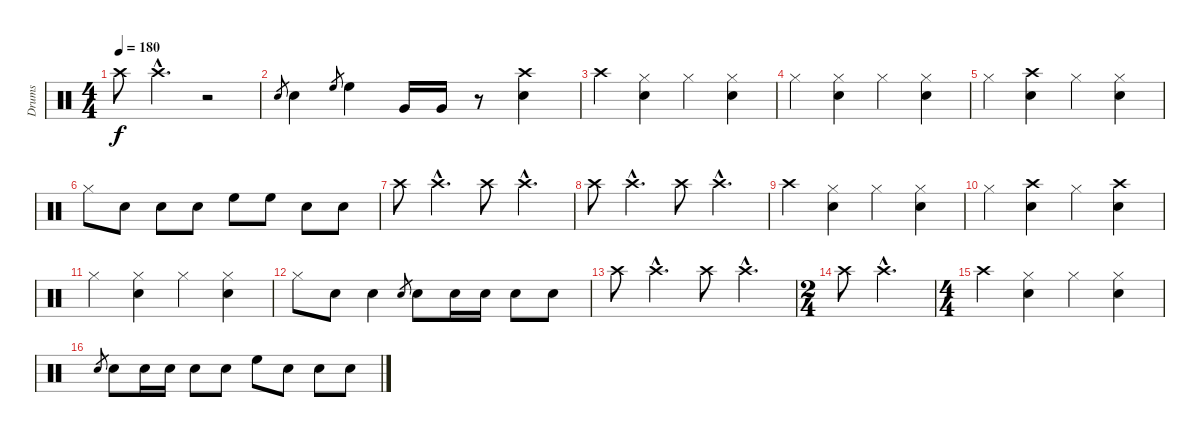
\track ("Drums" "Drums") {instrument percussion}
\staff {score}
\articulation defaults
\ts (4 4)
\tempo 180
\clef neutral
\ks c "Crash high (hit)".8{dy f} "Crash high (hit)"{hac}.4{d}
r.2 |
"Snare (hit) 2".8{gr} "Snare (hit) 2".4 "High Floor Tom (hit)".8{gr} "High Floor Tom (hit)".4 "Very Low Tom (hit)".16 "Very Low Tom (hit)".16 r.8 ("Crash high (hit)" "Snare (hit) 2").4 |
"Crash high (hit)".4 ("Hi-Hat (closed)" "Snare (hit) 2").4 "Hi-Hat (closed)".4 ("Hi-Hat (closed)" "Snare (hit) 2").4 |
"Hi-Hat (closed)".4 ("Hi-Hat (closed)" "Snare (hit) 2").4 "Hi-Hat (closed)".4 ("Hi-Hat (closed)" "Snare (hit) 2").4 |
"Hi-Hat (closed)".4 ("Crash high (hit)" "Snare (hit) 2").4 "Hi-Hat (closed)".4 ("Hi-Hat (closed)" "Snare (hit) 2").4 |
"Hi-Hat (closed)".8 "Snare (hit) 2".8 "Snare (hit) 2".8 "Snare (hit) 2".8 "High Floor Tom (hit)".8 "High Floor Tom (hit)".8 "Snare (hit) 2".8 "Snare (hit) 2".8 |
"Crash high (hit)".8 "Crash high (hit)"{hac}.4{d} "Crash high (hit)".8 "Crash high (hit)"{hac}.4{d} |
"Crash high (hit)".8 "Crash high (hit)"{hac}.4{d} "Crash high (hit)".8 "Crash high (hit)"{hac}.4{d} |
"Crash high (hit)".4 ("Hi-Hat (closed)" "Snare (hit) 2").4 "Hi-Hat (closed)".4 ("Hi-Hat (closed)" "Snare (hit) 2").4 |
"Hi-Hat (closed)".4 ("Crash high (hit)" "Snare (hit) 2").4 "Hi-Hat (closed)".4 ("Crash high (hit)" "Snare (hit) 2").4 |
"Hi-Hat (closed)".4 ("Hi-Hat (closed)" "Snare (hit) 2").4 "Hi-Hat (closed)".4 ("Hi-Hat (closed)" "Snare (hit) 2").4 |
"Hi-Hat (closed)".8 "Snare (hit) 2".8 "Snare (hit) 2".4 "Snare (hit) 2".8{gr} "Snare (hit) 2".8 "Snare (hit) 2".16 "Snare (hit) 2".16 "Snare (hit) 2".8 "Snare (hit) 2".8 |
"Crash high (hit)".8 "Crash high (hit)"{hac}.4{d} "Crash high (hit)".8 "Crash high (hit)"{hac}.4{d} |
\ts (2 4)
"Crash high (hit)".8 "Crash high (hit)"{hac}.4{d} |
\ts (4 4)
"Crash high (hit)".4 ("Hi-Hat (closed)" "Snare (hit) 2").4 "Hi-Hat (closed)".4 ("Hi-Hat (closed)" "Snare (hit) 2").4 |
"Snare (hit) 2".8{gr} "Snare (hit) 2".8 "Snare (hit) 2".16 "Snare (hit) 2".16 "Snare (hit) 2".8 "Snare (hit) 2".8 "High Floor Tom (hit)".8 "Snare (hit) 2".8 "Snare (hit) 2".8 "Snare (hit) 2".8
